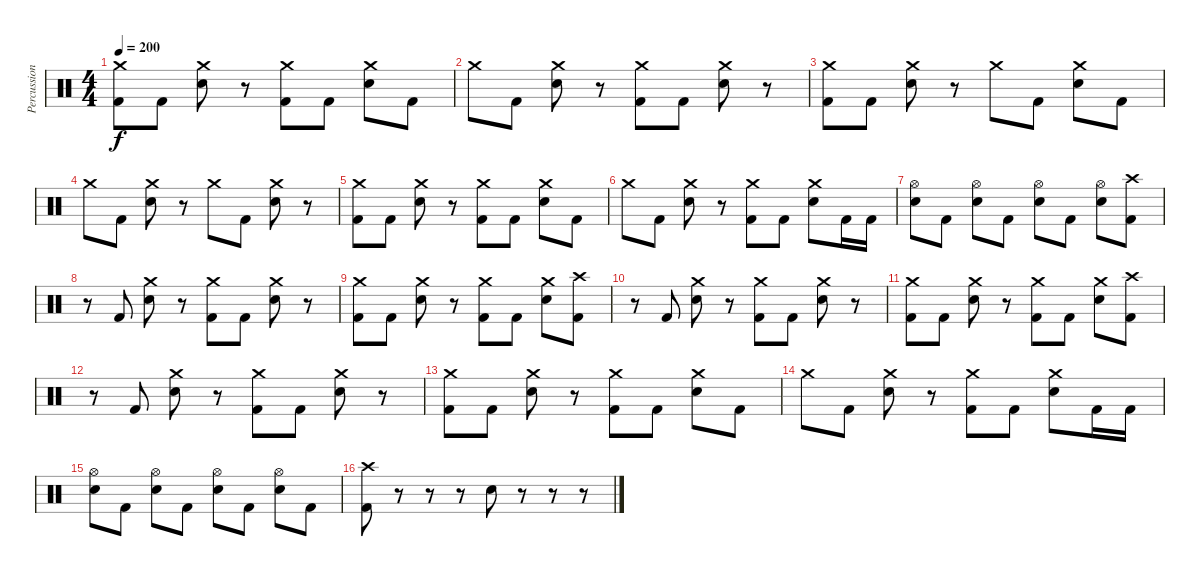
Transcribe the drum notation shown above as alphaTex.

\track ("Percussion" "Percussion") {instrument percussion}
\staff {score}
\articulation defaults
\ts (4 4)
\tempo 200
\clef neutral
\ks c
("Crash medium (hit)" "Kick (hit) 2").8{dy f} "Kick (hit) 2".8 ("Crash medium (hit)" "Snare (hit) 2").8 r.8 ("Crash medium (hit)" "Kick (hit) 2").8 "Kick (hit) 2".8 ("Crash medium (hit)" "Snare (hit) 2").8 "Kick (hit) 2".8 |
"Crash medium (hit)".8 "Kick (hit) 2".8 ("Crash medium (hit)" "Snare (hit) 2").8 r.8 ("Crash medium (hit)" "Kick (hit) 2").8 "Kick (hit) 2".8 ("Crash medium (hit)" "Snare (hit) 2").8 r.8 |
("Crash medium (hit)" "Kick (hit) 2").8 "Kick (hit) 2".8 ("Crash medium (hit)" "Snare (hit) 2").8 r.8 "Crash medium (hit)".8 "Kick (hit) 2".8 ("Crash medium (hit)" "Snare (hit) 2").8 "Kick (hit) 2".8 |
"Crash medium (hit)".8 "Kick (hit) 2".8 ("Crash medium (hit)" "Snare (hit) 2").8 r.8 "Crash medium (hit)".8 "Kick (hit) 2".8 ("Crash medium (hit)" "Snare (hit) 2").8 r.8 |
("Crash medium (hit)" "Kick (hit) 2").8 "Kick (hit) 2".8 ("Crash medium (hit)" "Snare (hit) 2").8 r.8 ("Crash medium (hit)" "Kick (hit) 2").8 "Kick (hit) 2".8 ("Crash medium (hit)" "Snare (hit) 2").8 "Kick (hit) 2".8 |
"Crash medium (hit)".8 "Kick (hit) 2".8 ("Crash medium (hit)" "Snare (hit) 2").8 r.8 ("Crash medium (hit)" "Kick (hit) 2").8 "Kick (hit) 2".8 ("Crash medium (hit)" "Snare (hit) 2").8 "Kick (hit) 2".16 "Kick (hit) 2".16 |
("Hi-Hat (open)" "Snare (hit) 2").8 "Kick (hit) 2".8 ("Hi-Hat (open)" "Snare (hit) 2").8 "Kick (hit) 2".8 ("Hi-Hat (open)" "Snare (hit) 2").8 "Kick (hit) 2".8 ("Hi-Hat (open)" "Snare (hit) 2").8 ("Crash high (hit)" "Kick (hit) 2").8 |
r.8 "Kick (hit) 2".8 ("Crash medium (hit)" "Snare (hit) 2").8 r.8 ("Crash medium (hit)" "Kick (hit) 2").8 "Kick (hit) 2".8 ("Crash medium (hit)" "Snare (hit) 2").8 r.8 |
("Crash medium (hit)" "Kick (hit) 2").8 "Kick (hit) 2".8 ("Crash medium (hit)" "Snare (hit) 2").8 r.8 ("Crash medium (hit)" "Kick (hit) 2").8 "Kick (hit) 2".8 ("Crash medium (hit)" "Snare (hit) 2").8 ("Crash high (hit)" "Kick (hit) 2").8 |
r.8 "Kick (hit) 2".8 ("Crash medium (hit)" "Snare (hit) 2").8 r.8 ("Crash medium (hit)" "Kick (hit) 2").8 "Kick (hit) 2".8 ("Crash medium (hit)" "Snare (hit) 2").8 r.8 |
("Crash medium (hit)" "Kick (hit) 2").8 "Kick (hit) 2".8 ("Crash medium (hit)" "Snare (hit) 2").8 r.8 ("Crash medium (hit)" "Kick (hit) 2").8 "Kick (hit) 2".8 ("Crash medium (hit)" "Snare (hit) 2").8 ("Crash high (hit)" "Kick (hit) 2").8 |
r.8 "Kick (hit) 2".8 ("Crash medium (hit)" "Snare (hit) 2").8 r.8 ("Crash medium (hit)" "Kick (hit) 2").8 "Kick (hit) 2".8 ("Crash medium (hit)" "Snare (hit) 2").8 r.8 |
("Crash medium (hit)" "Kick (hit) 2").8 "Kick (hit) 2".8 ("Crash medium (hit)" "Snare (hit) 2").8 r.8 ("Crash medium (hit)" "Kick (hit) 2").8 "Kick (hit) 2".8 ("Crash medium (hit)" "Snare (hit) 2").8 "Kick (hit) 2".8 |
"Crash medium (hit)".8 "Kick (hit) 2".8 ("Crash medium (hit)" "Snare (hit) 2").8 r.8 ("Crash medium (hit)" "Kick (hit) 2").8 "Kick (hit) 2".8 ("Crash medium (hit)" "Snare (hit) 2").8 "Kick (hit) 2".16 "Kick (hit) 2".16 |
("Hi-Hat (open)" "Snare (hit) 2").8 "Kick (hit) 2".8 ("Hi-Hat (open)" "Snare (hit) 2").8 "Kick (hit) 2".8 ("Hi-Hat (open)" "Snare (hit) 2").8 "Kick (hit) 2".8 ("Hi-Hat (open)" "Snare (hit) 2").8 "Kick (hit) 2".8 |
("Crash high (hit)" "Kick (hit) 2").8 r.8 r.8 r.8 "Snare (hit) 2".8 r.8 r.8 r.8
